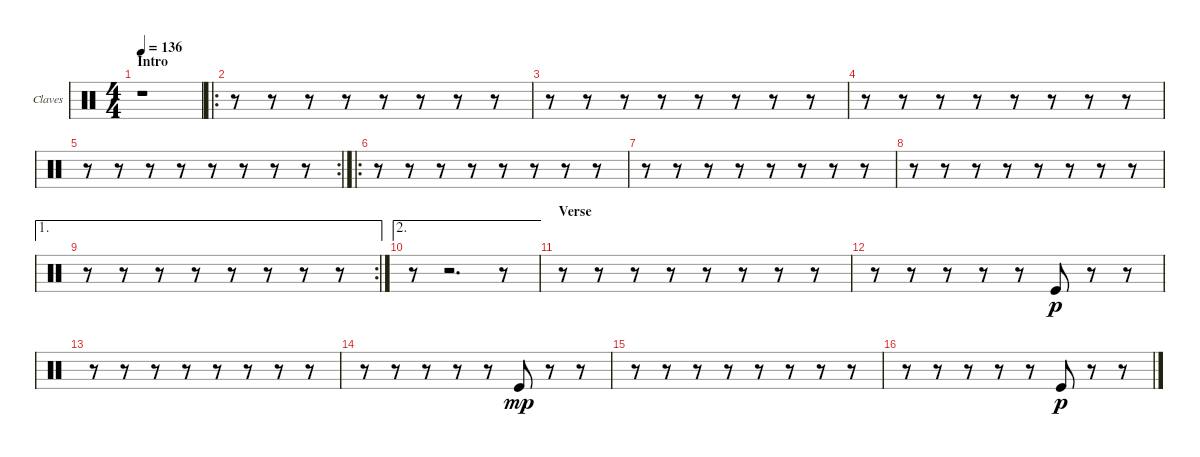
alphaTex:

\bracketExtendMode groupsimilarinstruments
\firstSystemTrackNameOrientation horizontal
\otherSystemsTrackNameOrientation horizontal
\track ("Claves" "Claves") {instrument percussion}
\staff {score}
\articulation defaults
\ts (4 4)
\section ("" "Intro")
\tempo 136
\clef neutral
\ks c
r.1{dy p} |
\ro
r.8 r.8 r.8 r.8 r.8 r.8 r.8 r.8 |
r.8 r.8 r.8 r.8 r.8 r.8 r.8 r.8 |
r.8 r.8 r.8 r.8 r.8 r.8 r.8 r.8 |
\rc 2
r.8 r.8 r.8 r.8 r.8 r.8 r.8 r.8 |
\ro
r.8 r.8 r.8 r.8 r.8 r.8 r.8 r.8 |
r.8 r.8 r.8 r.8 r.8 r.8 r.8 r.8 |
r.8 r.8 r.8 r.8 r.8 r.8 r.8 r.8 |
\ae 1
\rc 2
r.8 r.8 r.8 r.8 r.8 r.8 r.8 r.8 |
\ae 2
r.8 r.2{d} r.8 |
\section ("" "Verse")
r.8 r.8 r.8 r.8 r.8 r.8 r.8 r.8 |
r.8 r.8 r.8 r.8 r.8 "Kick (hit)".8 r.8 r.8 |
r.8 r.8 r.8 r.8 r.8 r.8 r.8 r.8 |
r.8 r.8 r.8 r.8 r.8 "Kick (hit)".8{dy mp} r.8 r.8 |
r.8 r.8 r.8 r.8 r.8 r.8 r.8 r.8 |
r.8 r.8 r.8 r.8 r.8 "Kick (hit)".8{dy p} r.8 r.8
